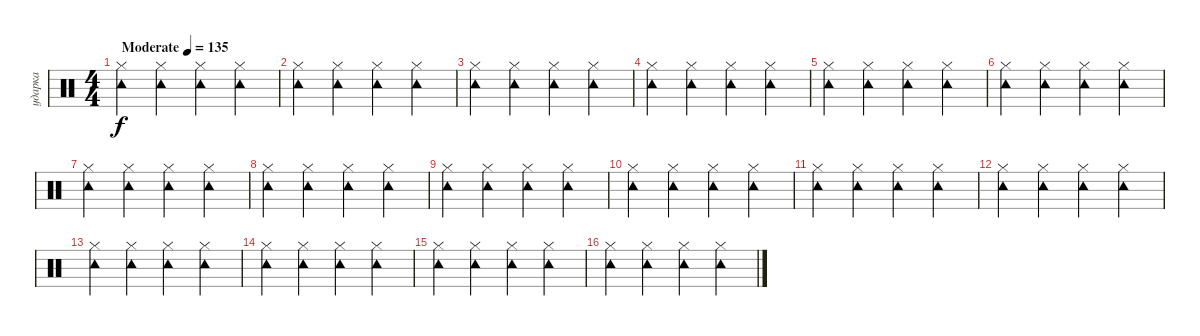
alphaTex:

\track ("ударка" "ударка") {instrument percussion}
\staff {score}
\articulation defaults
\ts (4 4)
\tempo (135 "Moderate")
\clef neutral
\ks c
("Hi-Hat (closed)" "Tambourine (hit)").4{dy f} ("Hi-Hat (closed)" "Tambourine (hit)").4 ("Hi-Hat (closed)" "Tambourine (hit)").4 ("Hi-Hat (closed)" "Tambourine (hit)").4 |
("Hi-Hat (closed)" "Tambourine (hit)").4 ("Hi-Hat (closed)" "Tambourine (hit)").4 ("Hi-Hat (closed)" "Tambourine (hit)").4 ("Hi-Hat (closed)" "Tambourine (hit)").4 |
("Hi-Hat (closed)" "Tambourine (hit)").4 ("Hi-Hat (closed)" "Tambourine (hit)").4 ("Hi-Hat (closed)" "Tambourine (hit)").4 ("Hi-Hat (closed)" "Tambourine (hit)").4 |
("Hi-Hat (closed)" "Tambourine (hit)").4 ("Hi-Hat (closed)" "Tambourine (hit)").4 ("Hi-Hat (closed)" "Tambourine (hit)").4 ("Hi-Hat (closed)" "Tambourine (hit)").4 |
("Hi-Hat (closed)" "Tambourine (hit)").4 ("Hi-Hat (closed)" "Tambourine (hit)").4 ("Hi-Hat (closed)" "Tambourine (hit)").4 ("Hi-Hat (closed)" "Tambourine (hit)").4 |
("Hi-Hat (closed)" "Tambourine (hit)").4 ("Hi-Hat (closed)" "Tambourine (hit)").4 ("Hi-Hat (closed)" "Tambourine (hit)").4 ("Hi-Hat (closed)" "Tambourine (hit)").4 |
("Hi-Hat (closed)" "Tambourine (hit)").4 ("Hi-Hat (closed)" "Tambourine (hit)").4 ("Hi-Hat (closed)" "Tambourine (hit)").4 ("Hi-Hat (closed)" "Tambourine (hit)").4 |
("Hi-Hat (closed)" "Tambourine (hit)").4 ("Hi-Hat (closed)" "Tambourine (hit)").4 ("Hi-Hat (closed)" "Tambourine (hit)").4 ("Hi-Hat (closed)" "Tambourine (hit)").4 |
("Hi-Hat (closed)" "Tambourine (hit)").4 ("Hi-Hat (closed)" "Tambourine (hit)").4 ("Hi-Hat (closed)" "Tambourine (hit)").4 ("Hi-Hat (closed)" "Tambourine (hit)").4 |
("Hi-Hat (closed)" "Tambourine (hit)").4 ("Hi-Hat (closed)" "Tambourine (hit)").4 ("Hi-Hat (closed)" "Tambourine (hit)").4 ("Hi-Hat (closed)" "Tambourine (hit)").4 |
("Hi-Hat (closed)" "Tambourine (hit)").4 ("Hi-Hat (closed)" "Tambourine (hit)").4 ("Hi-Hat (closed)" "Tambourine (hit)").4 ("Hi-Hat (closed)" "Tambourine (hit)").4 |
("Hi-Hat (closed)" "Tambourine (hit)").4 ("Hi-Hat (closed)" "Tambourine (hit)").4 ("Hi-Hat (closed)" "Tambourine (hit)").4 ("Hi-Hat (closed)" "Tambourine (hit)").4 |
("Hi-Hat (closed)" "Tambourine (hit)").4 ("Hi-Hat (closed)" "Tambourine (hit)").4 ("Hi-Hat (closed)" "Tambourine (hit)").4 ("Hi-Hat (closed)" "Tambourine (hit)").4 |
("Hi-Hat (closed)" "Tambourine (hit)").4 ("Hi-Hat (closed)" "Tambourine (hit)").4 ("Hi-Hat (closed)" "Tambourine (hit)").4 ("Hi-Hat (closed)" "Tambourine (hit)").4 |
("Hi-Hat (closed)" "Tambourine (hit)").4 ("Hi-Hat (closed)" "Tambourine (hit)").4 ("Hi-Hat (closed)" "Tambourine (hit)").4 ("Hi-Hat (closed)" "Tambourine (hit)").4 |
("Hi-Hat (closed)" "Tambourine (hit)").4 ("Hi-Hat (closed)" "Tambourine (hit)").4 ("Hi-Hat (closed)" "Tambourine (hit)").4 ("Hi-Hat (closed)" "Tambourine (hit)").4
